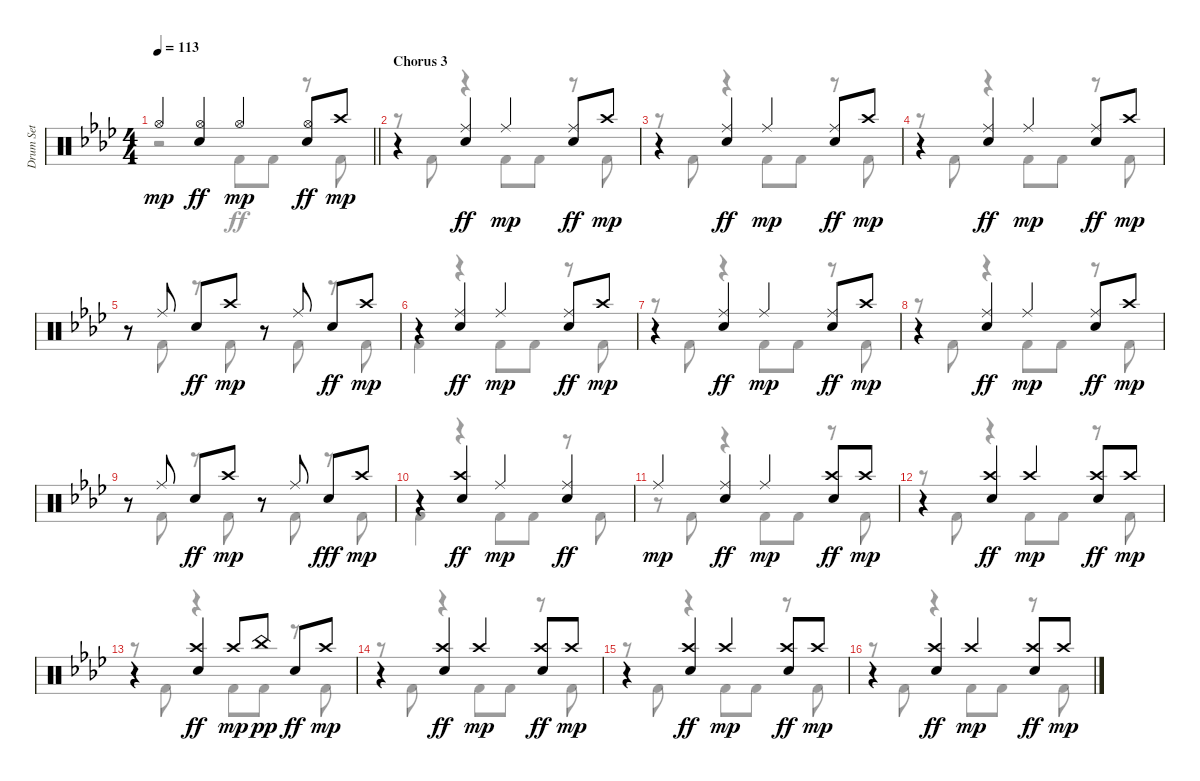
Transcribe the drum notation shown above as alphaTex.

\track ("Drum Set" "Drum Set") {instrument percussion}
\staff {score}
\articulation defaults
\voice
\ts (4 4)
\tempo 113
\clef neutral
\barLineRight lightlight
\ks fminor "Hi-Hat (open)".4{dy mp}
("Hi-Hat (open)" "Electric Snare (hit)").4{dy ff} "Hi-Hat (open)".4{dy mp} ("Hi-Hat (open)" "Electric Snare (hit)").8{dy ff} "Crash high (hit)".8{dy mp} |
\section ("" "Chorus 3")
r.4 ("Ride (middle)" "Electric Snare (hit)").4{dy ff} "Ride (middle)".4{dy mp} ("Ride (middle)" "Electric Snare (hit)").8{dy ff} "Crash high (hit)".8{dy mp} |
r.4 ("Ride (middle)" "Electric Snare (hit)").4{dy ff} "Ride (middle)".4{dy mp} ("Ride (middle)" "Electric Snare (hit)").8{dy ff} "Crash high (hit)".8{dy mp} |
r.4 ("Ride (middle)" "Electric Snare (hit)").4{dy ff} "Ride (middle)".4{dy mp} ("Ride (middle)" "Electric Snare (hit)").8{dy ff} "Crash high (hit)".8{dy mp} |
r.8 "Ride (middle)".8 "Electric Snare (hit)".8{dy ff} "Crash high (hit)".8{dy mp} r.8 "Ride (middle)".8 "Electric Snare (hit)".8{dy ff} "Crash high (hit)".8{dy mp} |
r.4 ("Ride (middle)" "Electric Snare (hit)").4{dy ff} "Ride (middle)".4{dy mp} ("Ride (middle)" "Electric Snare (hit)").8{dy ff} "Crash high (hit)".8{dy mp} |
r.4 ("Ride (middle)" "Electric Snare (hit)").4{dy ff} "Ride (middle)".4{dy mp} ("Ride (middle)" "Electric Snare (hit)").8{dy ff} "Crash high (hit)".8{dy mp} |
r.4 ("Ride (middle)" "Electric Snare (hit)").4{dy ff} "Ride (middle)".4{dy mp} ("Ride (middle)" "Electric Snare (hit)").8{dy ff} "Crash high (hit)".8{dy mp} |
r.8 "Ride (middle)".8 "Electric Snare (hit)".8{dy ff} "Crash high (hit)".8{dy mp} r.8 "Ride (middle)".8 "Electric Snare (hit)".8{dy fff} "Crash high (hit)".8{dy mp} |
r.4 ("Crash high (hit)" "Electric Snare (hit)").4{dy ff} "Ride (middle)".4{dy mp} ("Ride (middle)" "Electric Snare (hit)").4{dy ff} |
"Ride (middle)".4{dy mp} ("Ride (middle)" "Electric Snare (hit)").4{dy ff} "Ride (middle)".4{dy mp} ("Crash high (hit)" "Electric Snare (hit)").8{dy ff} "Crash high (hit)".8{dy mp} |
r.4 ("Crash high (hit)" "Electric Snare (hit)").4{dy ff} "Crash high (hit)".4{dy mp} ("Crash high (hit)" "Electric Snare (hit)").8{dy ff} "Crash high (hit)".8{dy mp} |
r.4 ("Crash high (hit)" "Electric Snare (hit)").4{dy ff} "Crash high (hit)".8{dy mp} "China (hit)".8{dy pp} "Electric Snare (hit)".8{dy ff} "Crash high (hit)".8{dy mp} |
r.4 ("Crash high (hit)" "Electric Snare (hit)").4{dy ff} "Crash high (hit)".4{dy mp} ("Crash high (hit)" "Electric Snare (hit)").8{dy ff} "Crash high (hit)".8{dy mp} |
r.4 ("Crash high (hit)" "Electric Snare (hit)").4{dy ff} "Crash high (hit)".4{dy mp} ("Crash high (hit)" "Electric Snare (hit)").8{dy ff} "Crash high (hit)".8{dy mp} |
r.4 ("Crash high (hit)" "Electric Snare (hit)").4{dy ff} "Crash high (hit)".4{dy mp} ("Crash high (hit)" "Electric Snare (hit)").8{dy ff} "Crash high (hit)".8{dy mp}
\voice
\clef neutral
\ottava regular
\simile none
\barLineRight lightlight
\ks fminor
r.2{dy ff} "Kick (hit) 2".8 "Kick (hit) 2".8 r.8 "Kick (hit) 2".8 |
r.8 "Kick (hit) 2".8 r.4 "Kick (hit) 2".8 "Kick (hit) 2".8 r.8 "Kick (hit) 2".8 |
r.8 "Kick (hit) 2".8 r.4 "Kick (hit) 2".8 "Kick (hit) 2".8 r.8 "Kick (hit) 2".8 |
r.8 "Kick (hit) 2".8 r.4 "Kick (hit) 2".8 "Kick (hit) 2".8 r.8 "Kick (hit) 2".8 |
r.8 "Kick (hit) 2".8 r.8 "Kick (hit) 2".8 r.8 "Kick (hit) 2".8 r.8 "Kick (hit) 2".8 |
"Kick (hit) 2".4 r.4 "Kick (hit) 2".8 "Kick (hit) 2".8 r.8 "Kick (hit) 2".8 |
r.8 "Kick (hit) 2".8 r.4 "Kick (hit) 2".8 "Kick (hit) 2".8 r.8 "Kick (hit) 2".8 |
r.8 "Kick (hit) 2".8 r.4 "Kick (hit) 2".8 "Kick (hit) 2".8 r.8 "Kick (hit) 2".8 |
r.8 "Kick (hit) 2".8 r.8 "Kick (hit) 2".8 r.8 "Kick (hit) 2".8 r.8 "Kick (hit) 2".8 |
"Kick (hit) 2".4 r.4 "Kick (hit) 2".8 "Kick (hit) 2".8 r.8 "Kick (hit) 2".8 |
r.8 "Kick (hit) 2".8 r.4 "Kick (hit) 2".8 "Kick (hit) 2".8 r.8 "Kick (hit) 2".8 |
r.8 "Kick (hit) 2".8 r.4 "Kick (hit) 2".8 "Kick (hit) 2".8 r.8 "Kick (hit) 2".8 |
r.8 "Kick (hit) 2".8 r.4 "Kick (hit) 2".8 "Kick (hit) 2".8 r.8 "Kick (hit) 2".8 |
r.8 "Kick (hit) 2".8 r.4 "Kick (hit) 2".8 "Kick (hit) 2".8 r.8 "Kick (hit) 2".8 |
r.8 "Kick (hit) 2".8 r.4 "Kick (hit) 2".8 "Kick (hit) 2".8 r.8 "Kick (hit) 2".8 |
r.8 "Kick (hit) 2".8 r.4 "Kick (hit) 2".8 "Kick (hit) 2".8 r.8 "Kick (hit) 2".8
